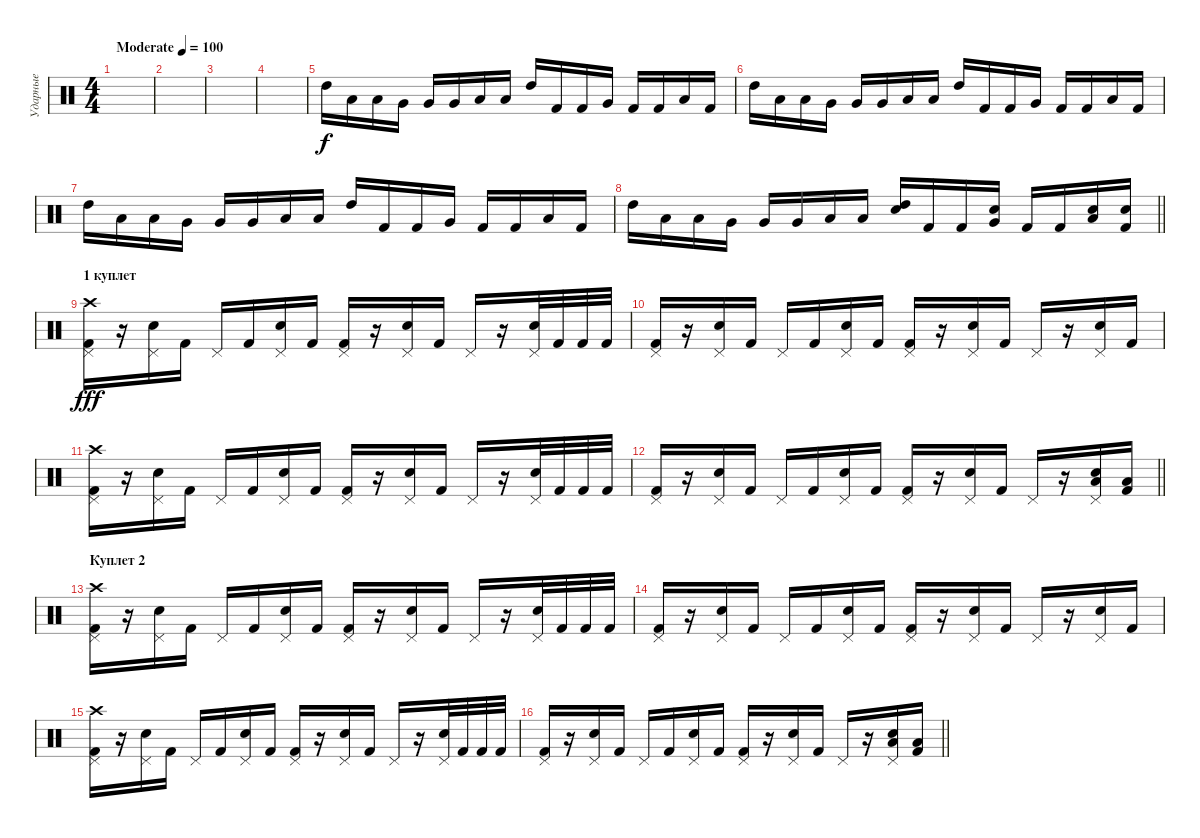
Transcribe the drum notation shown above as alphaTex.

\track ("Ударные" "Ударные") {instrument percussion}
\staff {score}
\articulation defaults
\ts (4 4)
\tempo (100 "Moderate")
\clef neutral
\ks c
|
|
|
|
"High Tom (hit)".16 "Low Tom (hit)".16 "Low Tom (hit)".16 "Very Low Tom (hit)".16 "Very Low Tom (hit)".16 "Very Low Tom (hit)".16 "Low Floor Tom (hit)".16 "Low Floor Tom (hit)".16 "High Tom (hit)".16 "Kick (hit) 2".16 "Kick (hit) 2".16 "Very Low Tom (hit)".16 "Kick (hit) 2".16 "Kick (hit) 2".16 "Low Floor Tom (hit)".16 "Kick (hit) 2".16 |
"High Tom (hit)".16 "Low Tom (hit)".16 "Low Tom (hit)".16 "Very Low Tom (hit)".16 "Very Low Tom (hit)".16 "Very Low Tom (hit)".16 "Low Floor Tom (hit)".16 "Low Floor Tom (hit)".16 "High Tom (hit)".16 "Kick (hit) 2".16 "Kick (hit) 2".16 "Very Low Tom (hit)".16 "Kick (hit) 2".16 "Kick (hit) 2".16 "Low Floor Tom (hit)".16 "Kick (hit) 2".16 |
"High Tom (hit)".16 "Low Tom (hit)".16 "Low Tom (hit)".16 "Very Low Tom (hit)".16 "Very Low Tom (hit)".16 "Very Low Tom (hit)".16 "Low Floor Tom (hit)".16 "Low Floor Tom (hit)".16 "High Tom (hit)".16 "Kick (hit) 2".16 "Kick (hit) 2".16 "Very Low Tom (hit)".16 "Kick (hit) 2".16 "Kick (hit) 2".16 "Low Floor Tom (hit)".16 "Kick (hit) 2".16 |
\barLineRight lightlight "High Tom (hit)".16 "Low Tom (hit)".16 "Low Tom (hit)".16 "Very Low Tom (hit)".16 "Very Low Tom (hit)".16 "Very Low Tom (hit)".16 "Low Floor Tom (hit)".16 "Low Floor Tom (hit)".16
("High Tom (hit)" "Snare (hit) 2").16 "Kick (hit) 2".16 "Kick (hit) 2".16 ("Very Low Tom (hit)" "Snare (hit) 2").16 "Kick (hit) 2".16 "Kick (hit) 2".16 ("Low Floor Tom (hit)" "Snare (hit) 2").16 ("Kick (hit) 2" "Snare (hit) 2").16 |
\section ("" "1 куплет")
("Pedal Hi-Hat (hit)" "Crash high (hit)" "Kick (hit) 2").16{dy fff} r.16 ("Pedal Hi-Hat (hit)" "Snare (hit) 2").16 "Kick (hit) 2".16 "Pedal Hi-Hat (hit)".16 "Kick (hit) 2".16 ("Pedal Hi-Hat (hit)" "Snare (hit) 2").16 "Kick (hit) 2".16 ("Pedal Hi-Hat (hit)" "Kick (hit) 2").16 r.16 ("Pedal Hi-Hat (hit)" "Snare (hit) 2").16 "Kick (hit) 2".16 "Pedal Hi-Hat (hit)".16 r.16 ("Pedal Hi-Hat (hit)" "Snare (hit) 2").32 "Kick (hit) 2".32 "Kick (hit) 2".32 "Kick (hit) 2".32 |
("Pedal Hi-Hat (hit)" "Kick (hit) 2").16 r.16 ("Pedal Hi-Hat (hit)" "Snare (hit) 2").16 "Kick (hit) 2".16 "Pedal Hi-Hat (hit)".16 "Kick (hit) 2".16 ("Pedal Hi-Hat (hit)" "Snare (hit) 2").16 "Kick (hit) 2".16 ("Pedal Hi-Hat (hit)" "Kick (hit) 2").16 r.16 ("Pedal Hi-Hat (hit)" "Snare (hit) 2").16 "Kick (hit) 2".16 "Pedal Hi-Hat (hit)".16 r.16 ("Pedal Hi-Hat (hit)" "Snare (hit) 2").16 "Kick (hit) 2".16 |
("Pedal Hi-Hat (hit)" "Crash high (hit)" "Kick (hit) 2").16 r.16 ("Pedal Hi-Hat (hit)" "Snare (hit) 2").16 "Kick (hit) 2".16 "Pedal Hi-Hat (hit)".16 "Kick (hit) 2".16 ("Pedal Hi-Hat (hit)" "Snare (hit) 2").16 "Kick (hit) 2".16 ("Pedal Hi-Hat (hit)" "Kick (hit) 2").16 r.16 ("Pedal Hi-Hat (hit)" "Snare (hit) 2").16 "Kick (hit) 2".16 "Pedal Hi-Hat (hit)".16 r.16 ("Pedal Hi-Hat (hit)" "Snare (hit) 2").32 "Kick (hit) 2".32 "Kick (hit) 2".32 "Kick (hit) 2".32 |
\barLineRight lightlight
("Pedal Hi-Hat (hit)" "Kick (hit) 2").16 r.16 ("Pedal Hi-Hat (hit)" "Snare (hit) 2").16 "Kick (hit) 2".16 "Pedal Hi-Hat (hit)".16 "Kick (hit) 2".16 ("Pedal Hi-Hat (hit)" "Snare (hit) 2").16 "Kick (hit) 2".16 ("Pedal Hi-Hat (hit)" "Kick (hit) 2").16 r.16 ("Pedal Hi-Hat (hit)" "Snare (hit) 2").16 "Kick (hit) 2".16 "Pedal Hi-Hat (hit)".16 r.16 ("Pedal Hi-Hat (hit)" "Low Floor Tom (hit)" "Snare (hit) 2").16 ("Low Floor Tom (hit)" "Kick (hit) 2").16 |
\section ("" "Куплет 2")
("Pedal Hi-Hat (hit)" "Crash high (hit)" "Kick (hit) 2").16 r.16 ("Pedal Hi-Hat (hit)" "Snare (hit) 2").16 "Kick (hit) 2".16 "Pedal Hi-Hat (hit)".16 "Kick (hit) 2".16 ("Pedal Hi-Hat (hit)" "Snare (hit) 2").16 "Kick (hit) 2".16 ("Pedal Hi-Hat (hit)" "Kick (hit) 2").16 r.16 ("Pedal Hi-Hat (hit)" "Snare (hit) 2").16 "Kick (hit) 2".16 "Pedal Hi-Hat (hit)".16 r.16 ("Pedal Hi-Hat (hit)" "Snare (hit) 2").32 "Kick (hit) 2".32 "Kick (hit) 2".32 "Kick (hit) 2".32 |
("Pedal Hi-Hat (hit)" "Kick (hit) 2").16 r.16 ("Pedal Hi-Hat (hit)" "Snare (hit) 2").16 "Kick (hit) 2".16 "Pedal Hi-Hat (hit)".16 "Kick (hit) 2".16 ("Pedal Hi-Hat (hit)" "Snare (hit) 2").16 "Kick (hit) 2".16 ("Pedal Hi-Hat (hit)" "Kick (hit) 2").16 r.16 ("Pedal Hi-Hat (hit)" "Snare (hit) 2").16 "Kick (hit) 2".16 "Pedal Hi-Hat (hit)".16 r.16 ("Pedal Hi-Hat (hit)" "Snare (hit) 2").16 "Kick (hit) 2".16 |
("Pedal Hi-Hat (hit)" "Crash high (hit)" "Kick (hit) 2").16 r.16 ("Pedal Hi-Hat (hit)" "Snare (hit) 2").16 "Kick (hit) 2".16 "Pedal Hi-Hat (hit)".16 "Kick (hit) 2".16 ("Pedal Hi-Hat (hit)" "Snare (hit) 2").16 "Kick (hit) 2".16 ("Pedal Hi-Hat (hit)" "Kick (hit) 2").16 r.16 ("Pedal Hi-Hat (hit)" "Snare (hit) 2").16 "Kick (hit) 2".16 "Pedal Hi-Hat (hit)".16 r.16 ("Pedal Hi-Hat (hit)" "Snare (hit) 2").32 "Kick (hit) 2".32 "Kick (hit) 2".32 "Kick (hit) 2".32 |
\barLineRight lightlight
("Pedal Hi-Hat (hit)" "Kick (hit) 2").16 r.16 ("Pedal Hi-Hat (hit)" "Snare (hit) 2").16 "Kick (hit) 2".16 "Pedal Hi-Hat (hit)".16 "Kick (hit) 2".16 ("Pedal Hi-Hat (hit)" "Snare (hit) 2").16 "Kick (hit) 2".16 ("Pedal Hi-Hat (hit)" "Kick (hit) 2").16 r.16 ("Pedal Hi-Hat (hit)" "Snare (hit) 2").16 "Kick (hit) 2".16 "Pedal Hi-Hat (hit)".16 r.16 ("Pedal Hi-Hat (hit)" "Low Floor Tom (hit)" "Snare (hit) 2").16 ("Low Floor Tom (hit)" "Kick (hit) 2").16
